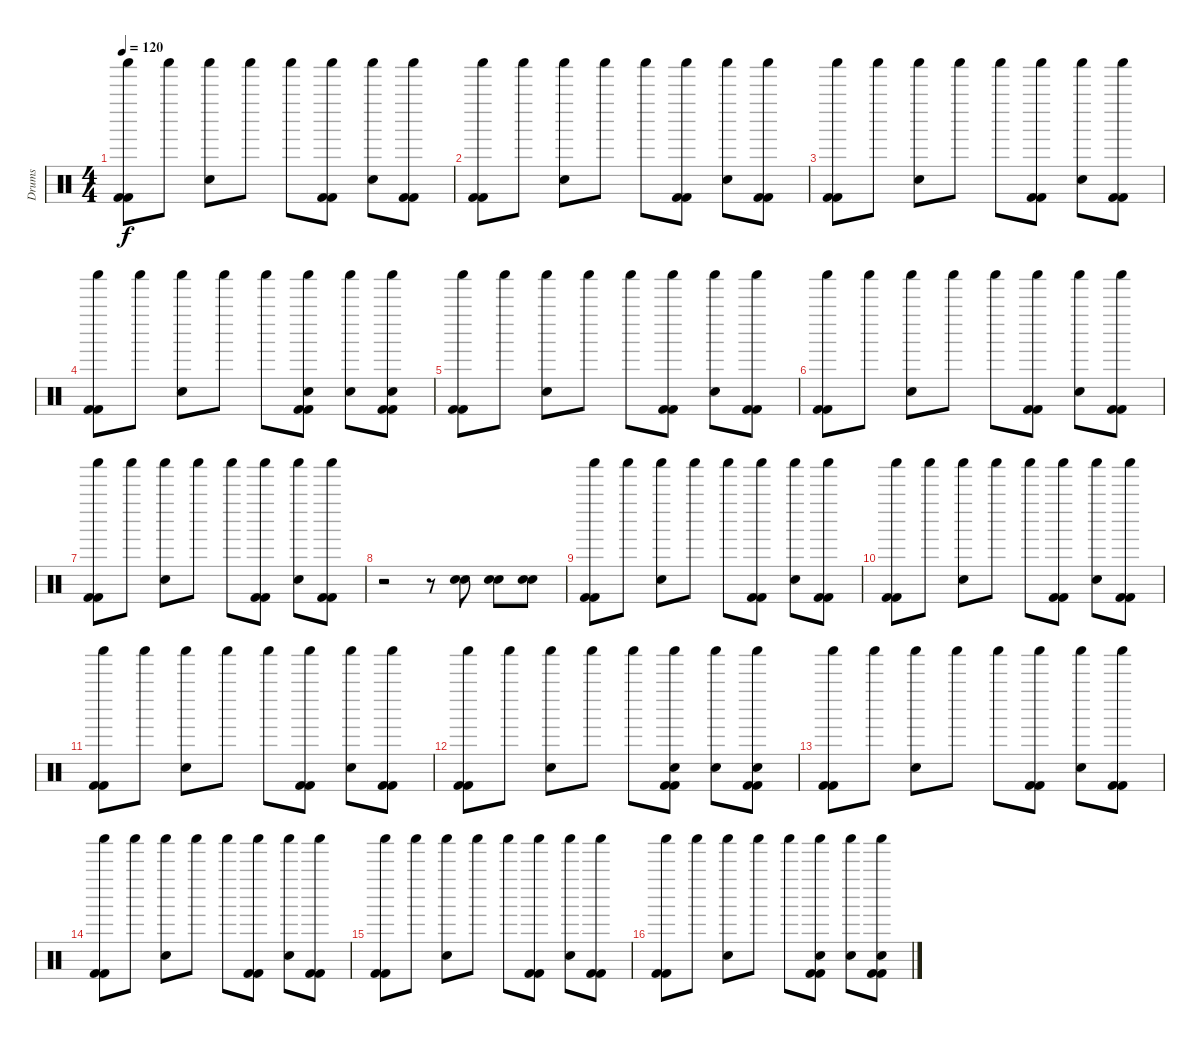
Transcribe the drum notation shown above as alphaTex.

\track ("Drums" "Drums") {instrument percussion}
\staff {score}
\articulation defaults
\ts (4 4)
\tempo 120
\clef neutral
\ks c
("Shaker (hit)" "Kick (hit) 2" "Kick (hit) 2").8{dy f} "Shaker (hit)".8 ("Shaker (hit)" "Electric Snare (hit)").8 "Shaker (hit)".8 "Shaker (hit)".8 ("Shaker (hit)" "Kick (hit) 2" "Kick (hit) 2").8 ("Shaker (hit)" "Electric Snare (hit)").8 ("Shaker (hit)" "Kick (hit) 2" "Kick (hit) 2").8 |
("Shaker (hit)" "Kick (hit) 2" "Kick (hit) 2").8 "Shaker (hit)".8 ("Shaker (hit)" "Electric Snare (hit)").8 "Shaker (hit)".8 "Shaker (hit)".8 ("Shaker (hit)" "Kick (hit) 2" "Kick (hit) 2").8 ("Shaker (hit)" "Electric Snare (hit)").8 ("Shaker (hit)" "Kick (hit) 2" "Kick (hit) 2").8 |
("Shaker (hit)" "Kick (hit) 2" "Kick (hit) 2").8 "Shaker (hit)".8 ("Shaker (hit)" "Electric Snare (hit)").8 "Shaker (hit)".8 "Shaker (hit)".8 ("Shaker (hit)" "Kick (hit) 2" "Kick (hit) 2").8 ("Shaker (hit)" "Electric Snare (hit)").8 ("Shaker (hit)" "Kick (hit) 2" "Kick (hit) 2").8 |
("Shaker (hit)" "Kick (hit) 2" "Kick (hit) 2").8 "Shaker (hit)".8 ("Shaker (hit)" "Electric Snare (hit)").8 "Shaker (hit)".8 "Shaker (hit)".8 ("Shaker (hit)" "Electric Snare (hit)" "Kick (hit) 2" "Kick (hit) 2").8 ("Shaker (hit)" "Electric Snare (hit)").8 ("Shaker (hit)" "Electric Snare (hit)" "Kick (hit) 2" "Kick (hit) 2").8 |
("Shaker (hit)" "Kick (hit) 2" "Kick (hit) 2").8 "Shaker (hit)".8 ("Shaker (hit)" "Electric Snare (hit)").8 "Shaker (hit)".8 "Shaker (hit)".8 ("Shaker (hit)" "Kick (hit) 2" "Kick (hit) 2").8 ("Shaker (hit)" "Electric Snare (hit)").8 ("Shaker (hit)" "Kick (hit) 2" "Kick (hit) 2").8 |
("Shaker (hit)" "Kick (hit) 2" "Kick (hit) 2").8 "Shaker (hit)".8 ("Shaker (hit)" "Electric Snare (hit)").8 "Shaker (hit)".8 "Shaker (hit)".8 ("Shaker (hit)" "Kick (hit) 2" "Kick (hit) 2").8 ("Shaker (hit)" "Electric Snare (hit)").8 ("Shaker (hit)" "Kick (hit) 2" "Kick (hit) 2").8 |
("Shaker (hit)" "Kick (hit) 2" "Kick (hit) 2").8 "Shaker (hit)".8 ("Shaker (hit)" "Electric Snare (hit)").8 "Shaker (hit)".8 "Shaker (hit)".8 ("Shaker (hit)" "Kick (hit) 2" "Kick (hit) 2").8 ("Shaker (hit)" "Electric Snare (hit)").8 ("Shaker (hit)" "Kick (hit) 2" "Kick (hit) 2").8 |
r.2 r.8 ("Electric Snare (hit)" "Electric Snare (hit)").8 ("Electric Snare (hit)" "Electric Snare (hit)").8 ("Electric Snare (hit)" "Electric Snare (hit)").8 |
("Shaker (hit)" "Kick (hit) 2" "Kick (hit) 2").8 "Shaker (hit)".8 ("Shaker (hit)" "Electric Snare (hit)").8 "Shaker (hit)".8 "Shaker (hit)".8 ("Shaker (hit)" "Kick (hit) 2" "Kick (hit) 2").8 ("Shaker (hit)" "Electric Snare (hit)").8 ("Shaker (hit)" "Kick (hit) 2" "Kick (hit) 2").8 |
("Shaker (hit)" "Kick (hit) 2" "Kick (hit) 2").8 "Shaker (hit)".8 ("Shaker (hit)" "Electric Snare (hit)").8 "Shaker (hit)".8 "Shaker (hit)".8 ("Shaker (hit)" "Kick (hit) 2" "Kick (hit) 2").8 ("Shaker (hit)" "Electric Snare (hit)").8 ("Shaker (hit)" "Kick (hit) 2" "Kick (hit) 2").8 |
("Shaker (hit)" "Kick (hit) 2" "Kick (hit) 2").8 "Shaker (hit)".8 ("Shaker (hit)" "Electric Snare (hit)").8 "Shaker (hit)".8 "Shaker (hit)".8 ("Shaker (hit)" "Kick (hit) 2" "Kick (hit) 2").8 ("Shaker (hit)" "Electric Snare (hit)").8 ("Shaker (hit)" "Kick (hit) 2" "Kick (hit) 2").8 |
("Shaker (hit)" "Kick (hit) 2" "Kick (hit) 2").8 "Shaker (hit)".8 ("Shaker (hit)" "Electric Snare (hit)").8 "Shaker (hit)".8 "Shaker (hit)".8 ("Shaker (hit)" "Electric Snare (hit)" "Kick (hit) 2" "Kick (hit) 2").8 ("Shaker (hit)" "Electric Snare (hit)").8 ("Shaker (hit)" "Electric Snare (hit)" "Kick (hit) 2" "Kick (hit) 2").8 |
("Shaker (hit)" "Kick (hit) 2" "Kick (hit) 2").8 "Shaker (hit)".8 ("Shaker (hit)" "Electric Snare (hit)").8 "Shaker (hit)".8 "Shaker (hit)".8 ("Shaker (hit)" "Kick (hit) 2" "Kick (hit) 2").8 ("Shaker (hit)" "Electric Snare (hit)").8 ("Shaker (hit)" "Kick (hit) 2" "Kick (hit) 2").8 |
("Shaker (hit)" "Kick (hit) 2" "Kick (hit) 2").8 "Shaker (hit)".8 ("Shaker (hit)" "Electric Snare (hit)").8 "Shaker (hit)".8 "Shaker (hit)".8 ("Shaker (hit)" "Kick (hit) 2" "Kick (hit) 2").8 ("Shaker (hit)" "Electric Snare (hit)").8 ("Shaker (hit)" "Kick (hit) 2" "Kick (hit) 2").8 |
("Shaker (hit)" "Kick (hit) 2" "Kick (hit) 2").8 "Shaker (hit)".8 ("Shaker (hit)" "Electric Snare (hit)").8 "Shaker (hit)".8 "Shaker (hit)".8 ("Shaker (hit)" "Kick (hit) 2" "Kick (hit) 2").8 ("Shaker (hit)" "Electric Snare (hit)").8 ("Shaker (hit)" "Kick (hit) 2" "Kick (hit) 2").8 |
("Shaker (hit)" "Kick (hit) 2" "Kick (hit) 2").8 "Shaker (hit)".8 ("Shaker (hit)" "Electric Snare (hit)").8 "Shaker (hit)".8 "Shaker (hit)".8 ("Shaker (hit)" "Electric Snare (hit)" "Kick (hit) 2" "Kick (hit) 2").8 ("Shaker (hit)" "Electric Snare (hit)").8 ("Shaker (hit)" "Electric Snare (hit)" "Kick (hit) 2" "Kick (hit) 2").8
